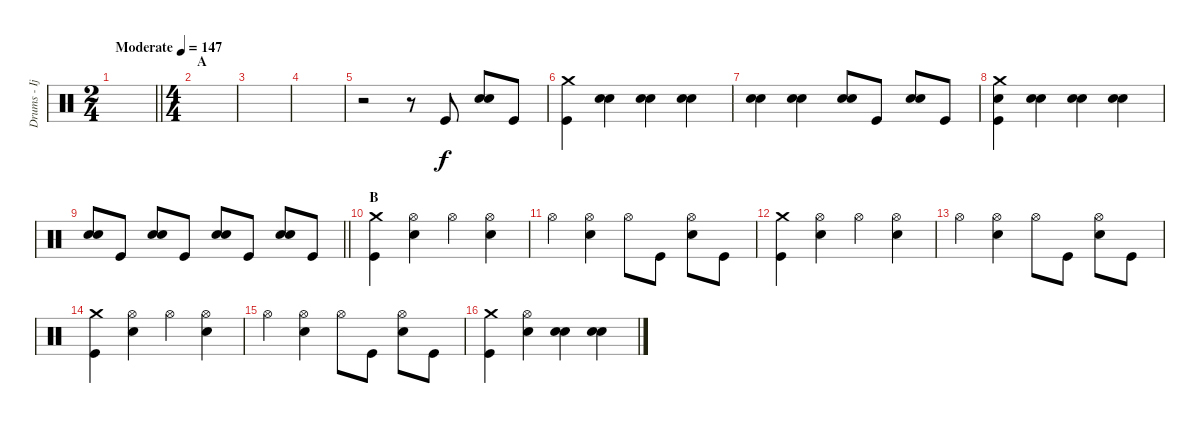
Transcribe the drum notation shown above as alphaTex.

\track ("Drums - Ijichi" "Drums - Ij") {instrument percussion}
\staff {score}
\articulation defaults
\ts (2 4)
\tempo (147 "Moderate")
\clef neutral
\barLineRight lightlight
\ks c
|
\ts (4 4)
\section ("" "A")
|
|
|
r.2 r.8 "Kick (hit)".8 ("Electric Snare (hit)" "Electric Snare (hit)").8 "Kick (hit)".8 |
("Crash medium (hit)" "Kick (hit)").4 ("Electric Snare (hit)" "Electric Snare (hit)").4 ("Electric Snare (hit)" "Electric Snare (hit)").4 ("Electric Snare (hit)" "Electric Snare (hit)").4 |
("Electric Snare (hit)" "Electric Snare (hit)").4 ("Electric Snare (hit)" "Electric Snare (hit)").4 ("Electric Snare (hit)" "Electric Snare (hit)").8 "Kick (hit)".8 ("Electric Snare (hit)" "Electric Snare (hit)").8 "Kick (hit)".8 |
("Crash medium (hit)" "Electric Snare (hit)" "Kick (hit)").4 ("Electric Snare (hit)" "Electric Snare (hit)").4 ("Electric Snare (hit)" "Electric Snare (hit)").4 ("Electric Snare (hit)" "Electric Snare (hit)").4 |
\barLineRight lightlight
("Electric Snare (hit)" "Electric Snare (hit)").8 "Kick (hit)".8 ("Electric Snare (hit)" "Electric Snare (hit)").8 "Kick (hit)".8 ("Electric Snare (hit)" "Electric Snare (hit)").8 "Kick (hit)".8 ("Electric Snare (hit)" "Electric Snare (hit)").8 "Kick (hit)".8 |
\section ("" "B")
("Crash medium (hit)" "Kick (hit)").4 ("Hi-Hat (open)" "Electric Snare (hit)").4 "Hi-Hat (open)".4 ("Hi-Hat (open)" "Electric Snare (hit)").4 |
"Hi-Hat (open)".4 ("Hi-Hat (open)" "Electric Snare (hit)").4 "Hi-Hat (open)".8 "Kick (hit)".8 ("Hi-Hat (open)" "Electric Snare (hit)").8 "Kick (hit)".8 |
("Crash medium (hit)" "Kick (hit)").4 ("Hi-Hat (open)" "Electric Snare (hit)").4 "Hi-Hat (open)".4 ("Hi-Hat (open)" "Electric Snare (hit)").4 |
"Hi-Hat (open)".4 ("Hi-Hat (open)" "Electric Snare (hit)").4 "Hi-Hat (open)".8 "Kick (hit)".8 ("Hi-Hat (open)" "Electric Snare (hit)").8 "Kick (hit)".8 |
("Crash medium (hit)" "Kick (hit)").4 ("Hi-Hat (open)" "Electric Snare (hit)").4 "Hi-Hat (open)".4 ("Hi-Hat (open)" "Electric Snare (hit)").4 |
"Hi-Hat (open)".4 ("Hi-Hat (open)" "Electric Snare (hit)").4 "Hi-Hat (open)".8 "Kick (hit)".8 ("Hi-Hat (open)" "Electric Snare (hit)").8 "Kick (hit)".8 |
("Crash medium (hit)" "Kick (hit)").4 ("Hi-Hat (open)" "Electric Snare (hit)").4 ("Electric Snare (hit)" "Electric Snare (hit)").4 ("Electric Snare (hit)" "Electric Snare (hit)").4
